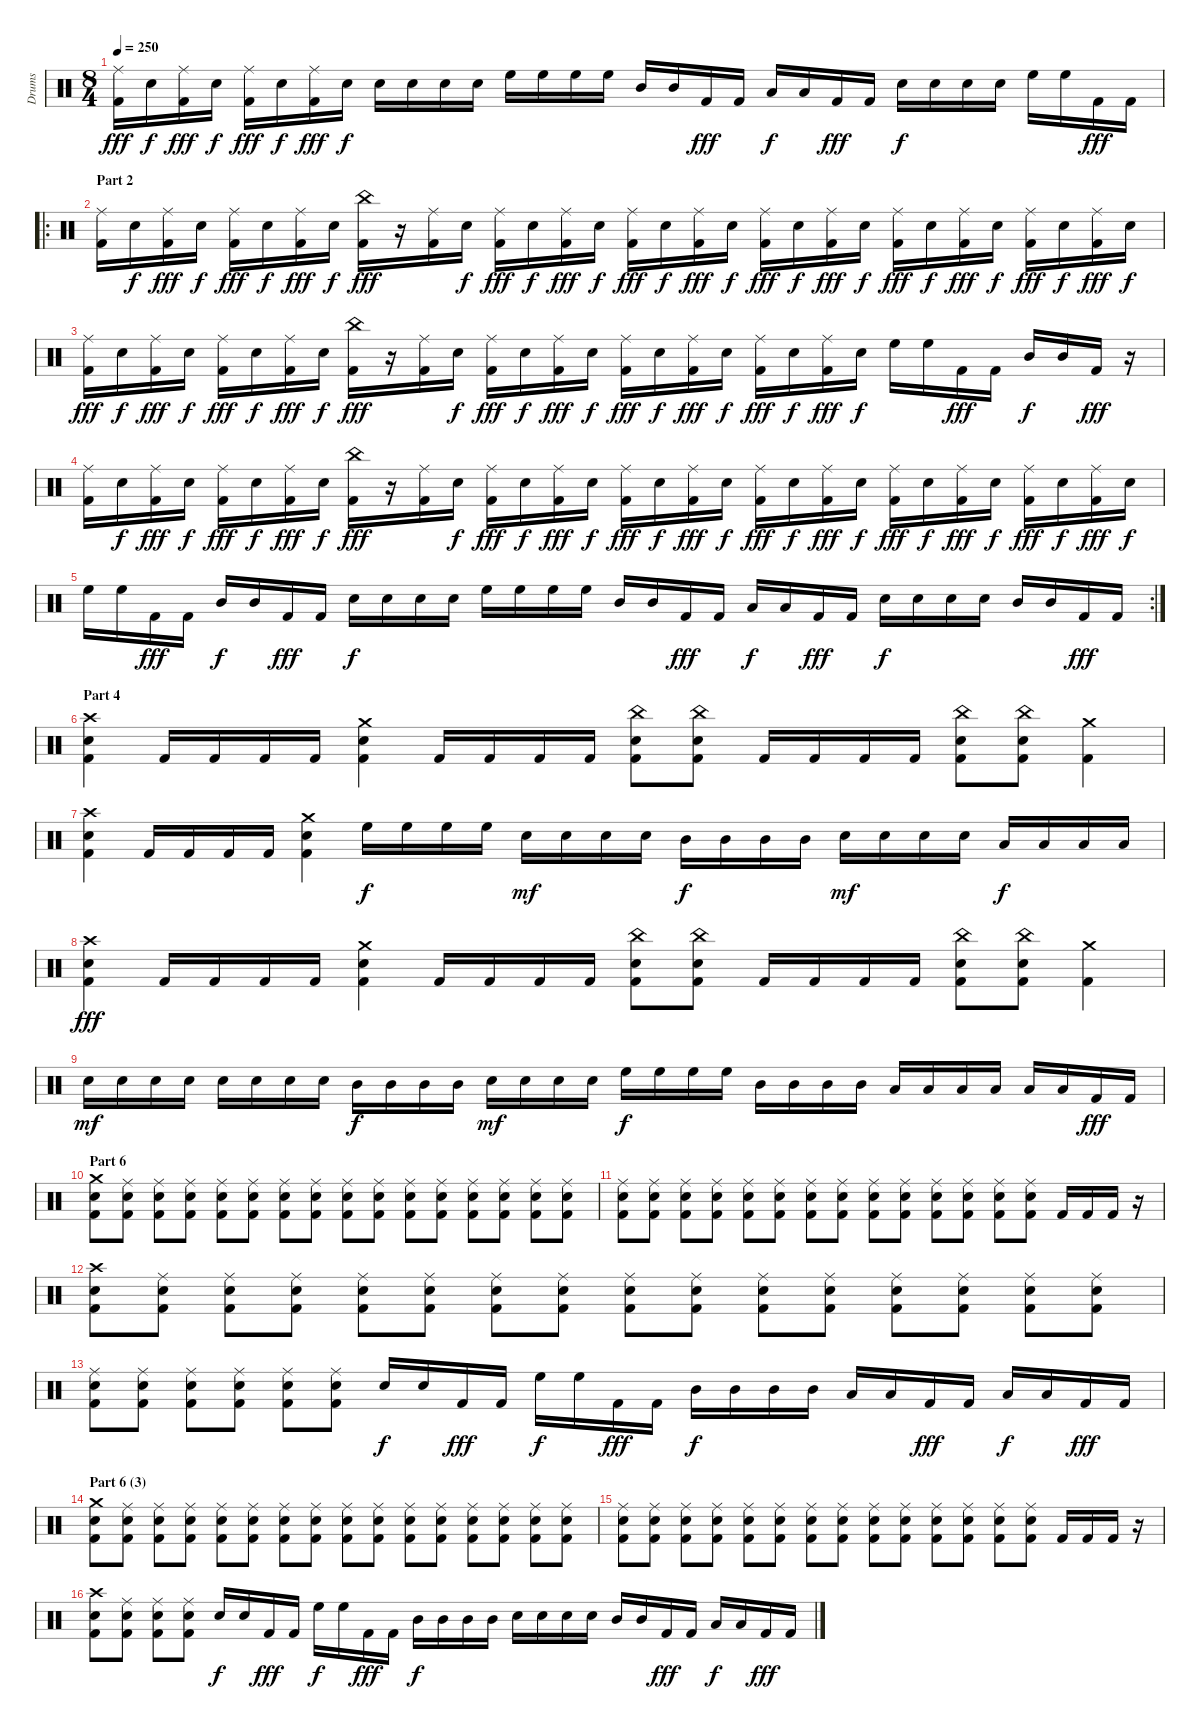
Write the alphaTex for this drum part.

\track ("Drums" "Drums") {instrument percussion}
\staff {score}
\articulation defaults
\ts (8 4)
\tempo 250
\clef neutral
\ks c
("Ride (middle)" "Kick (hit) 2").16{dy fff} "Electric Snare (hit)".16{dy f} ("Ride (middle)" "Kick (hit) 2").16{dy fff} "Electric Snare (hit)".16{dy f} ("Ride (middle)" "Kick (hit) 2").16{dy fff} "Electric Snare (hit)".16{dy f} ("Ride (middle)" "Kick (hit) 2").16{dy fff} "Electric Snare (hit)".16{dy f} "Electric Snare (hit)".16 "Electric Snare (hit)".16 "Electric Snare (hit)".16 "Electric Snare (hit)".16 "High Floor Tom (hit)".16 "High Floor Tom (hit)".16 "High Floor Tom (hit)".16 "High Floor Tom (hit)".16 "Mid Tom (hit)".16 "Mid Tom (hit)".16 "Kick (hit) 2".16{dy fff} "Kick (hit) 2".16 "Low Tom (hit)".16{dy f} "Low Tom (hit)".16 "Kick (hit) 2".16{dy fff} "Kick (hit) 2".16 "Electric Snare (hit)".16{dy f} "Electric Snare (hit)".16 "Electric Snare (hit)".16 "Electric Snare (hit)".16 "High Floor Tom (hit)".16 "High Floor Tom (hit)".16 "Kick (hit) 2".16{dy fff} "Kick (hit) 2".16 |
\ro
\section ("" "Part 2")
("Ride (middle)" "Kick (hit) 2").16 "Electric Snare (hit)".16{dy f} ("Ride (middle)" "Kick (hit) 2").16{dy fff} "Electric Snare (hit)".16{dy f} ("Ride (middle)" "Kick (hit) 2").16{dy fff} "Electric Snare (hit)".16{dy f} ("Ride (middle)" "Kick (hit) 2").16{dy fff} "Electric Snare (hit)".16{dy f} ("China (hit)" "Kick (hit) 2").16{dy fff} r.16 ("Ride (middle)" "Kick (hit) 2").16 "Electric Snare (hit)".16{dy f} ("Ride (middle)" "Kick (hit) 2").16{dy fff} "Electric Snare (hit)".16{dy f} ("Ride (middle)" "Kick (hit) 2").16{dy fff} "Electric Snare (hit)".16{dy f} ("Ride (middle)" "Kick (hit) 2").16{dy fff} "Electric Snare (hit)".16{dy f} ("Ride (middle)" "Kick (hit) 2").16{dy fff} "Electric Snare (hit)".16{dy f} ("Ride (middle)" "Kick (hit) 2").16{dy fff} "Electric Snare (hit)".16{dy f} ("Ride (middle)" "Kick (hit) 2").16{dy fff} "Electric Snare (hit)".16{dy f} ("Ride (middle)" "Kick (hit) 2").16{dy fff} "Electric Snare (hit)".16{dy f} ("Ride (middle)" "Kick (hit) 2").16{dy fff} "Electric Snare (hit)".16{dy f} ("Ride (middle)" "Kick (hit) 2").16{dy fff} "Electric Snare (hit)".16{dy f} ("Ride (middle)" "Kick (hit) 2").16{dy fff} "Electric Snare (hit)".16{dy f} |
("Ride (middle)" "Kick (hit) 2").16{dy fff} "Electric Snare (hit)".16{dy f} ("Ride (middle)" "Kick (hit) 2").16{dy fff} "Electric Snare (hit)".16{dy f} ("Ride (middle)" "Kick (hit) 2").16{dy fff} "Electric Snare (hit)".16{dy f} ("Ride (middle)" "Kick (hit) 2").16{dy fff} "Electric Snare (hit)".16{dy f} ("China (hit)" "Kick (hit) 2").16{dy fff} r.16 ("Ride (middle)" "Kick (hit) 2").16 "Electric Snare (hit)".16{dy f} ("Ride (middle)" "Kick (hit) 2").16{dy fff} "Electric Snare (hit)".16{dy f} ("Ride (middle)" "Kick (hit) 2").16{dy fff} "Electric Snare (hit)".16{dy f} ("Ride (middle)" "Kick (hit) 2").16{dy fff} "Electric Snare (hit)".16{dy f} ("Ride (middle)" "Kick (hit) 2").16{dy fff} "Electric Snare (hit)".16{dy f} ("Ride (middle)" "Kick (hit) 2").16{dy fff} "Electric Snare (hit)".16{dy f} ("Ride (middle)" "Kick (hit) 2").16{dy fff} "Electric Snare (hit)".16{dy f} "High Floor Tom (hit)".16 "High Floor Tom (hit)".16 "Kick (hit) 2".16{dy fff} "Kick (hit) 2".16 "Mid Tom (hit)".16{dy f} "Mid Tom (hit)".16 "Kick (hit) 2".16{dy fff} r.16 |
("Ride (middle)" "Kick (hit) 2").16 "Electric Snare (hit)".16{dy f} ("Ride (middle)" "Kick (hit) 2").16{dy fff} "Electric Snare (hit)".16{dy f} ("Ride (middle)" "Kick (hit) 2").16{dy fff} "Electric Snare (hit)".16{dy f} ("Ride (middle)" "Kick (hit) 2").16{dy fff} "Electric Snare (hit)".16{dy f} ("China (hit)" "Kick (hit) 2").16{dy fff} r.16 ("Ride (middle)" "Kick (hit) 2").16 "Electric Snare (hit)".16{dy f} ("Ride (middle)" "Kick (hit) 2").16{dy fff} "Electric Snare (hit)".16{dy f} ("Ride (middle)" "Kick (hit) 2").16{dy fff} "Electric Snare (hit)".16{dy f} ("Ride (middle)" "Kick (hit) 2").16{dy fff} "Electric Snare (hit)".16{dy f} ("Ride (middle)" "Kick (hit) 2").16{dy fff} "Electric Snare (hit)".16{dy f} ("Ride (middle)" "Kick (hit) 2").16{dy fff} "Electric Snare (hit)".16{dy f} ("Ride (middle)" "Kick (hit) 2").16{dy fff} "Electric Snare (hit)".16{dy f} ("Ride (middle)" "Kick (hit) 2").16{dy fff} "Electric Snare (hit)".16{dy f} ("Ride (middle)" "Kick (hit) 2").16{dy fff} "Electric Snare (hit)".16{dy f} ("Ride (middle)" "Kick (hit) 2").16{dy fff} "Electric Snare (hit)".16{dy f} ("Ride (middle)" "Kick (hit) 2").16{dy fff} "Electric Snare (hit)".16{dy f} |
\rc 2 "High Floor Tom (hit)".16 "High Floor Tom (hit)".16 "Kick (hit) 2".16{dy fff} "Kick (hit) 2".16 "Mid Tom (hit)".16{dy f} "Mid Tom (hit)".16 "Kick (hit) 2".16{dy fff} "Kick (hit) 2".16 "Electric Snare (hit)".16{dy f} "Electric Snare (hit)".16 "Electric Snare (hit)".16 "Electric Snare (hit)".16 "High Floor Tom (hit)".16 "High Floor Tom (hit)".16 "High Floor Tom (hit)".16 "High Floor Tom (hit)".16 "Mid Tom (hit)".16 "Mid Tom (hit)".16 "Kick (hit) 2".16{dy fff} "Kick (hit) 2".16 "Low Tom (hit)".16{dy f} "Low Tom (hit)".16 "Kick (hit) 2".16{dy fff} "Kick (hit) 2".16 "Electric Snare (hit)".16{dy f} "Electric Snare (hit)".16 "Electric Snare (hit)".16 "Electric Snare (hit)".16 "Mid Tom (hit)".16 "Mid Tom (hit)".16 "Kick (hit) 2".16{dy fff} "Kick (hit) 2".16
|
\section ("" "Part 4")
("Crash high (hit)" "Electric Snare (hit)" "Kick (hit) 2").4 "Kick (hit) 2".16 "Kick (hit) 2".16 "Kick (hit) 2".16 "Kick (hit) 2".16 ("Crash medium (hit)" "Electric Snare (hit)" "Kick (hit) 2").4 "Kick (hit) 2".16 "Kick (hit) 2".16 "Kick (hit) 2".16 "Kick (hit) 2".16 ("China (hit)" "Electric Snare (hit)" "Kick (hit) 2").8 ("China (hit)" "Electric Snare (hit)" "Kick (hit) 2").8 "Kick (hit) 2".16 "Kick (hit) 2".16 "Kick (hit) 2".16 "Kick (hit) 2".16 ("China (hit)" "Electric Snare (hit)" "Kick (hit) 2").8 ("China (hit)" "Electric Snare (hit)" "Kick (hit) 2").8 ("Crash medium (hit)" "Kick (hit) 2").4 |
("Crash high (hit)" "Electric Snare (hit)" "Kick (hit) 2").4 "Kick (hit) 2".16 "Kick (hit) 2".16 "Kick (hit) 2".16 "Kick (hit) 2".16 ("Crash medium (hit)" "Electric Snare (hit)" "Kick (hit) 2").4 "High Floor Tom (hit)".16{dy f} "High Floor Tom (hit)".16 "High Floor Tom (hit)".16 "High Floor Tom (hit)".16 "Electric Snare (hit)".16{dy mf} "Electric Snare (hit)".16 "Electric Snare (hit)".16 "Electric Snare (hit)".16 "Mid Tom (hit)".16{dy f} "Mid Tom (hit)".16 "Mid Tom (hit)".16 "Mid Tom (hit)".16 "Electric Snare (hit)".16{dy mf} "Electric Snare (hit)".16 "Electric Snare (hit)".16 "Electric Snare (hit)".16 "Low Tom (hit)".16{dy f} "Low Tom (hit)".16 "Low Tom (hit)".16 "Low Tom (hit)".16 |
("Crash high (hit)" "Electric Snare (hit)" "Kick (hit) 2").4{dy fff} "Kick (hit) 2".16 "Kick (hit) 2".16 "Kick (hit) 2".16 "Kick (hit) 2".16 ("Crash medium (hit)" "Electric Snare (hit)" "Kick (hit) 2").4 "Kick (hit) 2".16 "Kick (hit) 2".16 "Kick (hit) 2".16 "Kick (hit) 2".16 ("China (hit)" "Electric Snare (hit)" "Kick (hit) 2").8 ("China (hit)" "Electric Snare (hit)" "Kick (hit) 2").8 "Kick (hit) 2".16 "Kick (hit) 2".16 "Kick (hit) 2".16 "Kick (hit) 2".16 ("China (hit)" "Electric Snare (hit)" "Kick (hit) 2").8 ("China (hit)" "Electric Snare (hit)" "Kick (hit) 2").8 ("Crash medium (hit)" "Kick (hit) 2").4 |
"Electric Snare (hit)".16{dy mf} "Electric Snare (hit)".16 "Electric Snare (hit)".16 "Electric Snare (hit)".16 "Electric Snare (hit)".16 "Electric Snare (hit)".16 "Electric Snare (hit)".16 "Electric Snare (hit)".16 "Mid Tom (hit)".16{dy f} "Mid Tom (hit)".16 "Mid Tom (hit)".16 "Mid Tom (hit)".16 "Electric Snare (hit)".16{dy mf} "Electric Snare (hit)".16 "Electric Snare (hit)".16 "Electric Snare (hit)".16 "High Floor Tom (hit)".16{dy f} "High Floor Tom (hit)".16 "High Floor Tom (hit)".16 "High Floor Tom (hit)".16 "Mid Tom (hit)".16 "Mid Tom (hit)".16 "Mid Tom (hit)".16 "Mid Tom (hit)".16 "Low Tom (hit)".16 "Low Tom (hit)".16 "Low Tom (hit)".16 "Low Tom (hit)".16 "Low Tom (hit)".16 "Low Tom (hit)".16 "Kick (hit) 2".16{dy fff} "Kick (hit) 2".16 |
\section ("" "Part 6")
("Crash medium (hit)" "Electric Snare (hit)" "Kick (hit) 2").8 ("Ride (middle)" "Electric Snare (hit)" "Kick (hit) 2").8 ("Ride (middle)" "Electric Snare (hit)" "Kick (hit) 2").8 ("Ride (middle)" "Electric Snare (hit)" "Kick (hit) 2").8 ("Ride (middle)" "Electric Snare (hit)" "Kick (hit) 2").8 ("Ride (middle)" "Electric Snare (hit)" "Kick (hit) 2").8 ("Ride (middle)" "Electric Snare (hit)" "Kick (hit) 2").8 ("Ride (middle)" "Electric Snare (hit)" "Kick (hit) 2").8 ("Ride (middle)" "Electric Snare (hit)" "Kick (hit) 2").8 ("Ride (middle)" "Electric Snare (hit)" "Kick (hit) 2").8 ("Ride (middle)" "Electric Snare (hit)" "Kick (hit) 2").8 ("Ride (middle)" "Electric Snare (hit)" "Kick (hit) 2").8 ("Ride (middle)" "Electric Snare (hit)" "Kick (hit) 2").8 ("Ride (middle)" "Electric Snare (hit)" "Kick (hit) 2").8 ("Ride (middle)" "Electric Snare (hit)" "Kick (hit) 2").8 ("Ride (middle)" "Electric Snare (hit)" "Kick (hit) 2").8 |
("Ride (middle)" "Electric Snare (hit)" "Kick (hit) 2").8 ("Ride (middle)" "Electric Snare (hit)" "Kick (hit) 2").8 ("Ride (middle)" "Electric Snare (hit)" "Kick (hit) 2").8 ("Ride (middle)" "Electric Snare (hit)" "Kick (hit) 2").8 ("Ride (middle)" "Electric Snare (hit)" "Kick (hit) 2").8 ("Ride (middle)" "Electric Snare (hit)" "Kick (hit) 2").8 ("Ride (middle)" "Electric Snare (hit)" "Kick (hit) 2").8 ("Ride (middle)" "Electric Snare (hit)" "Kick (hit) 2").8 ("Ride (middle)" "Electric Snare (hit)" "Kick (hit) 2").8 ("Ride (middle)" "Electric Snare (hit)" "Kick (hit) 2").8 ("Ride (middle)" "Electric Snare (hit)" "Kick (hit) 2").8 ("Ride (middle)" "Electric Snare (hit)" "Kick (hit) 2").8 ("Ride (middle)" "Electric Snare (hit)" "Kick (hit) 2").8 ("Ride (middle)" "Electric Snare (hit)" "Kick (hit) 2").8 "Kick (hit) 2".16 "Kick (hit) 2".16 "Kick (hit) 2".16 r.16 |
("Crash high (hit)" "Electric Snare (hit)" "Kick (hit) 2").8 ("Ride (middle)" "Electric Snare (hit)" "Kick (hit) 2").8 ("Ride (middle)" "Electric Snare (hit)" "Kick (hit) 2").8 ("Ride (middle)" "Electric Snare (hit)" "Kick (hit) 2").8 ("Ride (middle)" "Electric Snare (hit)" "Kick (hit) 2").8 ("Ride (middle)" "Electric Snare (hit)" "Kick (hit) 2").8 ("Ride (middle)" "Electric Snare (hit)" "Kick (hit) 2").8 ("Ride (middle)" "Electric Snare (hit)" "Kick (hit) 2").8 ("Ride (middle)" "Electric Snare (hit)" "Kick (hit) 2").8 ("Ride (middle)" "Electric Snare (hit)" "Kick (hit) 2").8 ("Ride (middle)" "Electric Snare (hit)" "Kick (hit) 2").8 ("Ride (middle)" "Electric Snare (hit)" "Kick (hit) 2").8 ("Ride (middle)" "Electric Snare (hit)" "Kick (hit) 2").8 ("Ride (middle)" "Electric Snare (hit)" "Kick (hit) 2").8 ("Ride (middle)" "Electric Snare (hit)" "Kick (hit) 2").8 ("Ride (middle)" "Electric Snare (hit)" "Kick (hit) 2").8 |
("Ride (middle)" "Electric Snare (hit)" "Kick (hit) 2").8 ("Ride (middle)" "Electric Snare (hit)" "Kick (hit) 2").8 ("Ride (middle)" "Electric Snare (hit)" "Kick (hit) 2").8 ("Ride (middle)" "Electric Snare (hit)" "Kick (hit) 2").8 ("Ride (middle)" "Electric Snare (hit)" "Kick (hit) 2").8 ("Ride (middle)" "Electric Snare (hit)" "Kick (hit) 2").8 "Electric Snare (hit)".16{dy f} "Electric Snare (hit)".16 "Kick (hit) 2".16{dy fff} "Kick (hit) 2".16 "High Floor Tom (hit)".16{dy f} "High Floor Tom (hit)".16 "Kick (hit) 2".16{dy fff} "Kick (hit) 2".16 "Mid Tom (hit)".16{dy f} "Mid Tom (hit)".16 "Mid Tom (hit)".16 "Mid Tom (hit)".16 "Low Tom (hit)".16 "Low Tom (hit)".16 "Kick (hit) 2".16{dy fff} "Kick (hit) 2".16 "Low Tom (hit)".16{dy f} "Low Tom (hit)".16 "Kick (hit) 2".16{dy fff} "Kick (hit) 2".16 |
\section ("" "Part 6 (3)")
("Crash medium (hit)" "Electric Snare (hit)" "Kick (hit) 2").8 ("Ride (middle)" "Electric Snare (hit)" "Kick (hit) 2").8 ("Ride (middle)" "Electric Snare (hit)" "Kick (hit) 2").8 ("Ride (middle)" "Electric Snare (hit)" "Kick (hit) 2").8 ("Ride (middle)" "Electric Snare (hit)" "Kick (hit) 2").8 ("Ride (middle)" "Electric Snare (hit)" "Kick (hit) 2").8 ("Ride (middle)" "Electric Snare (hit)" "Kick (hit) 2").8 ("Ride (middle)" "Electric Snare (hit)" "Kick (hit) 2").8 ("Ride (middle)" "Electric Snare (hit)" "Kick (hit) 2").8 ("Ride (middle)" "Electric Snare (hit)" "Kick (hit) 2").8 ("Ride (middle)" "Electric Snare (hit)" "Kick (hit) 2").8 ("Ride (middle)" "Electric Snare (hit)" "Kick (hit) 2").8 ("Ride (middle)" "Electric Snare (hit)" "Kick (hit) 2").8 ("Ride (middle)" "Electric Snare (hit)" "Kick (hit) 2").8 ("Ride (middle)" "Electric Snare (hit)" "Kick (hit) 2").8 ("Ride (middle)" "Electric Snare (hit)" "Kick (hit) 2").8 |
("Ride (middle)" "Electric Snare (hit)" "Kick (hit) 2").8 ("Ride (middle)" "Electric Snare (hit)" "Kick (hit) 2").8 ("Ride (middle)" "Electric Snare (hit)" "Kick (hit) 2").8 ("Ride (middle)" "Electric Snare (hit)" "Kick (hit) 2").8 ("Ride (middle)" "Electric Snare (hit)" "Kick (hit) 2").8 ("Ride (middle)" "Electric Snare (hit)" "Kick (hit) 2").8 ("Ride (middle)" "Electric Snare (hit)" "Kick (hit) 2").8 ("Ride (middle)" "Electric Snare (hit)" "Kick (hit) 2").8 ("Ride (middle)" "Electric Snare (hit)" "Kick (hit) 2").8 ("Ride (middle)" "Electric Snare (hit)" "Kick (hit) 2").8 ("Ride (middle)" "Electric Snare (hit)" "Kick (hit) 2").8 ("Ride (middle)" "Electric Snare (hit)" "Kick (hit) 2").8 ("Ride (middle)" "Electric Snare (hit)" "Kick (hit) 2").8 ("Ride (middle)" "Electric Snare (hit)" "Kick (hit) 2").8 "Kick (hit) 2".16 "Kick (hit) 2".16 "Kick (hit) 2".16 r.16 |
("Crash high (hit)" "Electric Snare (hit)" "Kick (hit) 2").8 ("Ride (middle)" "Electric Snare (hit)" "Kick (hit) 2").8 ("Ride (middle)" "Electric Snare (hit)" "Kick (hit) 2").8 ("Ride (middle)" "Electric Snare (hit)" "Kick (hit) 2").8 "Electric Snare (hit)".16{dy f} "Electric Snare (hit)".16 "Kick (hit) 2".16{dy fff} "Kick (hit) 2".16 "High Floor Tom (hit)".16{dy f} "High Floor Tom (hit)".16 "Kick (hit) 2".16{dy fff} "Kick (hit) 2".16 "Mid Tom (hit)".16{dy f} "Mid Tom (hit)".16 "Mid Tom (hit)".16 "Mid Tom (hit)".16 "Electric Snare (hit)".16 "Electric Snare (hit)".16 "Electric Snare (hit)".16 "Electric Snare (hit)".16 "Mid Tom (hit)".16 "Mid Tom (hit)".16 "Kick (hit) 2".16{dy fff} "Kick (hit) 2".16 "Low Tom (hit)".16{dy f} "Low Tom (hit)".16 "Kick (hit) 2".16{dy fff} "Kick (hit) 2".16
